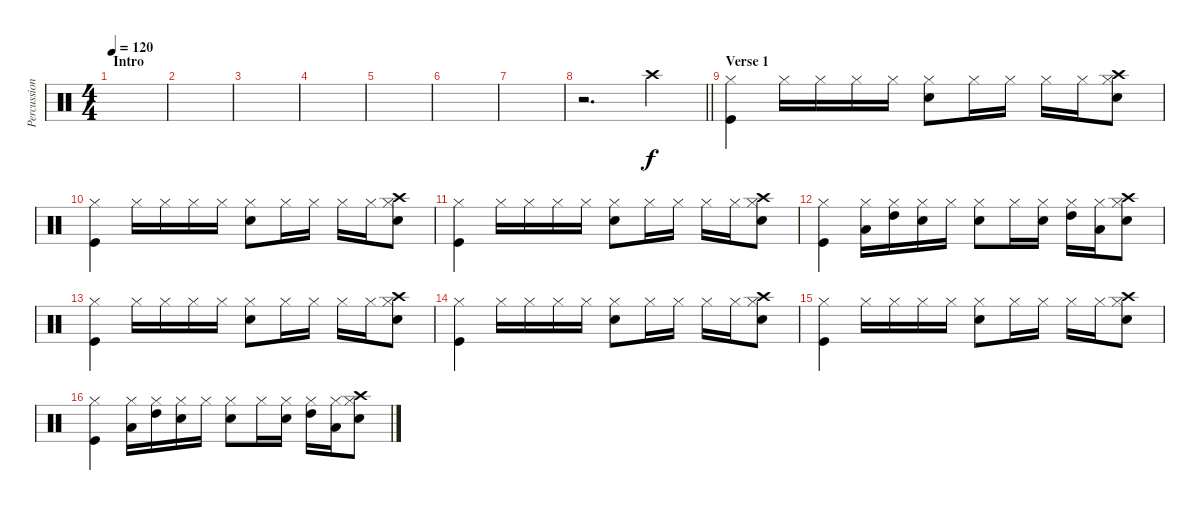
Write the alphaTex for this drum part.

\track ("Percussion" "Percussion") {instrument percussion}
\staff {score}
\articulation defaults
\ts (4 4)
\section ("" "Intro")
\tempo 120
\clef neutral
\ks c
|
|
|
|
|
|
|
\barLineRight lightlight
r.2{d} "Crash high (hit)".4 |
\section ("" "Verse 1")
("Hi-Hat (closed)" "Kick (hit)").4 "Hi-Hat (closed)".16 "Hi-Hat (closed)".16 "Hi-Hat (closed)".16 "Hi-Hat (closed)".16 ("Hi-Hat (closed)" "Snare (hit) 2").8 "Hi-Hat (closed)".16 "Hi-Hat (closed)".16 "Hi-Hat (closed)".16 "Hi-Hat (closed)".16 ("Hi-Hat (closed)" "Crash high (hit)" "Snare (hit) 2").8 |
("Hi-Hat (closed)" "Kick (hit)").4 "Hi-Hat (closed)".16 "Hi-Hat (closed)".16 "Hi-Hat (closed)".16 "Hi-Hat (closed)".16 ("Hi-Hat (closed)" "Snare (hit) 2").8 "Hi-Hat (closed)".16 "Hi-Hat (closed)".16 "Hi-Hat (closed)".16 "Hi-Hat (closed)".16 ("Hi-Hat (closed)" "Crash high (hit)" "Snare (hit) 2").8 |
("Hi-Hat (closed)" "Kick (hit)").4 "Hi-Hat (closed)".16 "Hi-Hat (closed)".16 "Hi-Hat (closed)".16 "Hi-Hat (closed)".16 ("Hi-Hat (closed)" "Snare (hit) 2").8 "Hi-Hat (closed)".16 "Hi-Hat (closed)".16 "Hi-Hat (closed)".16 "Hi-Hat (closed)".16 ("Hi-Hat (closed)" "Crash high (hit)" "Snare (hit) 2").8 |
("Hi-Hat (closed)" "Kick (hit)").4 ("Hi-Hat (closed)" "Low Tom (hit)").16 ("Hi-Hat (closed)" "High Tom (hit)").16 ("Hi-Hat (closed)" "Electric Snare (hit)").16 "Hi-Hat (closed)".16 ("Hi-Hat (closed)" "Snare (hit) 2").8 "Hi-Hat (closed)".16 ("Hi-Hat (closed)" "Electric Snare (hit)").16 ("Hi-Hat (closed)" "High Tom (hit)").16 ("Hi-Hat (closed)" "Low Tom (hit)").16 ("Hi-Hat (closed)" "Crash high (hit)" "Snare (hit) 2").8 |
("Hi-Hat (closed)" "Kick (hit)").4 "Hi-Hat (closed)".16 "Hi-Hat (closed)".16 "Hi-Hat (closed)".16 "Hi-Hat (closed)".16 ("Hi-Hat (closed)" "Snare (hit) 2").8 "Hi-Hat (closed)".16 "Hi-Hat (closed)".16 "Hi-Hat (closed)".16 "Hi-Hat (closed)".16 ("Hi-Hat (closed)" "Crash high (hit)" "Snare (hit) 2").8 |
("Hi-Hat (closed)" "Kick (hit)").4 "Hi-Hat (closed)".16 "Hi-Hat (closed)".16 "Hi-Hat (closed)".16 "Hi-Hat (closed)".16 ("Hi-Hat (closed)" "Snare (hit) 2").8 "Hi-Hat (closed)".16 "Hi-Hat (closed)".16 "Hi-Hat (closed)".16 "Hi-Hat (closed)".16 ("Hi-Hat (closed)" "Crash high (hit)" "Snare (hit) 2").8 |
("Hi-Hat (closed)" "Kick (hit)").4 "Hi-Hat (closed)".16 "Hi-Hat (closed)".16 "Hi-Hat (closed)".16 "Hi-Hat (closed)".16 ("Hi-Hat (closed)" "Snare (hit) 2").8 "Hi-Hat (closed)".16 "Hi-Hat (closed)".16 "Hi-Hat (closed)".16 "Hi-Hat (closed)".16 ("Hi-Hat (closed)" "Crash high (hit)" "Snare (hit) 2").8 |
("Hi-Hat (closed)" "Kick (hit)").4 ("Hi-Hat (closed)" "Low Tom (hit)").16 ("Hi-Hat (closed)" "High Tom (hit)").16 ("Hi-Hat (closed)" "Electric Snare (hit)").16 "Hi-Hat (closed)".16 ("Hi-Hat (closed)" "Snare (hit) 2").8 "Hi-Hat (closed)".16 ("Hi-Hat (closed)" "Electric Snare (hit)").16 ("Hi-Hat (closed)" "High Tom (hit)").16 ("Hi-Hat (closed)" "Low Tom (hit)").16 ("Hi-Hat (closed)" "Crash high (hit)" "Snare (hit) 2").8
